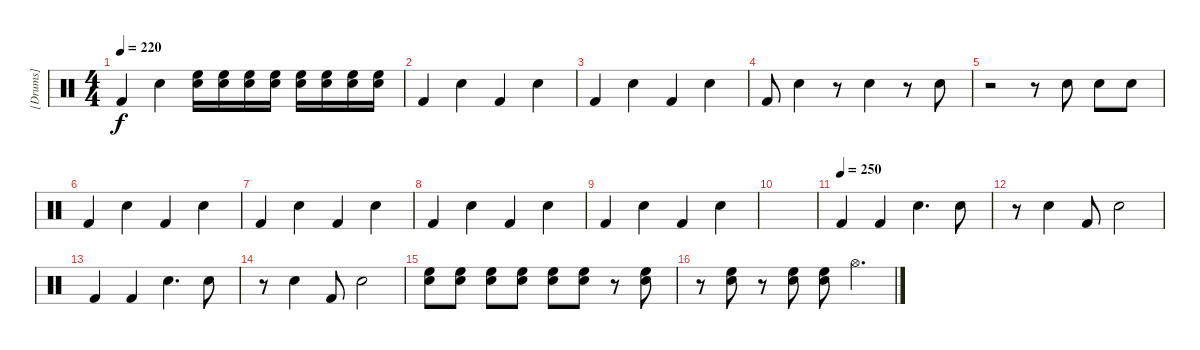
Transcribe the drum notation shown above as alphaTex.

\track ("[Drums]" "[Drums]") {instrument percussion}
\staff {score}
\articulation defaults
\ts (4 4)
\tempo 220
\clef neutral
\ks c "Kick (hit) 2".4{dy f} "Electric Snare (hit)".4
("Electric Snare (hit)" "High Floor Tom (hit)").16 ("Electric Snare (hit)" "High Floor Tom (hit)").16 ("Electric Snare (hit)" "High Floor Tom (hit)").16 ("Electric Snare (hit)" "High Floor Tom (hit)").16 ("Electric Snare (hit)" "High Floor Tom (hit)").16 ("Electric Snare (hit)" "High Floor Tom (hit)").16 ("Electric Snare (hit)" "High Floor Tom (hit)").16 ("Electric Snare (hit)" "High Floor Tom (hit)").16 |
"Kick (hit) 2".4 "Electric Snare (hit)".4 "Kick (hit) 2".4 "Electric Snare (hit)".4 |
"Kick (hit) 2".4 "Electric Snare (hit)".4 "Kick (hit) 2".4 "Electric Snare (hit)".4 |
"Kick (hit) 2".8 "Electric Snare (hit)".4 r.8 "Electric Snare (hit)".4 r.8 "Electric Snare (hit)".8 |
r.2 r.8 "Electric Snare (hit)".8 "Electric Snare (hit)".8 "Electric Snare (hit)".8 |
"Kick (hit) 2".4 "Electric Snare (hit)".4 "Kick (hit) 2".4 "Electric Snare (hit)".4 |
"Kick (hit) 2".4 "Electric Snare (hit)".4 "Kick (hit) 2".4 "Electric Snare (hit)".4 |
"Kick (hit) 2".4 "Electric Snare (hit)".4 "Kick (hit) 2".4 "Electric Snare (hit)".4 |
"Kick (hit) 2".4 "Electric Snare (hit)".4 "Kick (hit) 2".4 "Electric Snare (hit)".4 |
|
\tempo (250)
"Kick (hit) 2".4 "Kick (hit) 2".4 "Electric Snare (hit)".4{d} "Electric Snare (hit)".8 |
r.8 "Electric Snare (hit)".4 "Kick (hit) 2".8 "Electric Snare (hit)".2 |
"Kick (hit) 2".4 "Kick (hit) 2".4 "Electric Snare (hit)".4{d} "Electric Snare (hit)".8 |
r.8 "Electric Snare (hit)".4 "Kick (hit) 2".8 "Electric Snare (hit)".2 |
("Electric Snare (hit)" "High Floor Tom (hit)").8 ("Electric Snare (hit)" "High Floor Tom (hit)").8 ("Electric Snare (hit)" "High Floor Tom (hit)").8 ("Electric Snare (hit)" "High Floor Tom (hit)").8 ("Electric Snare (hit)" "High Floor Tom (hit)").8 ("Electric Snare (hit)" "High Floor Tom (hit)").8 r.8 ("Electric Snare (hit)" "High Floor Tom (hit)").8 |
r.8 ("Electric Snare (hit)" "High Floor Tom (hit)").8 r.8 ("Electric Snare (hit)" "High Floor Tom (hit)").8 ("Electric Snare (hit)" "High Floor Tom (hit)").8 "Hi-Hat (open)".4{d}
